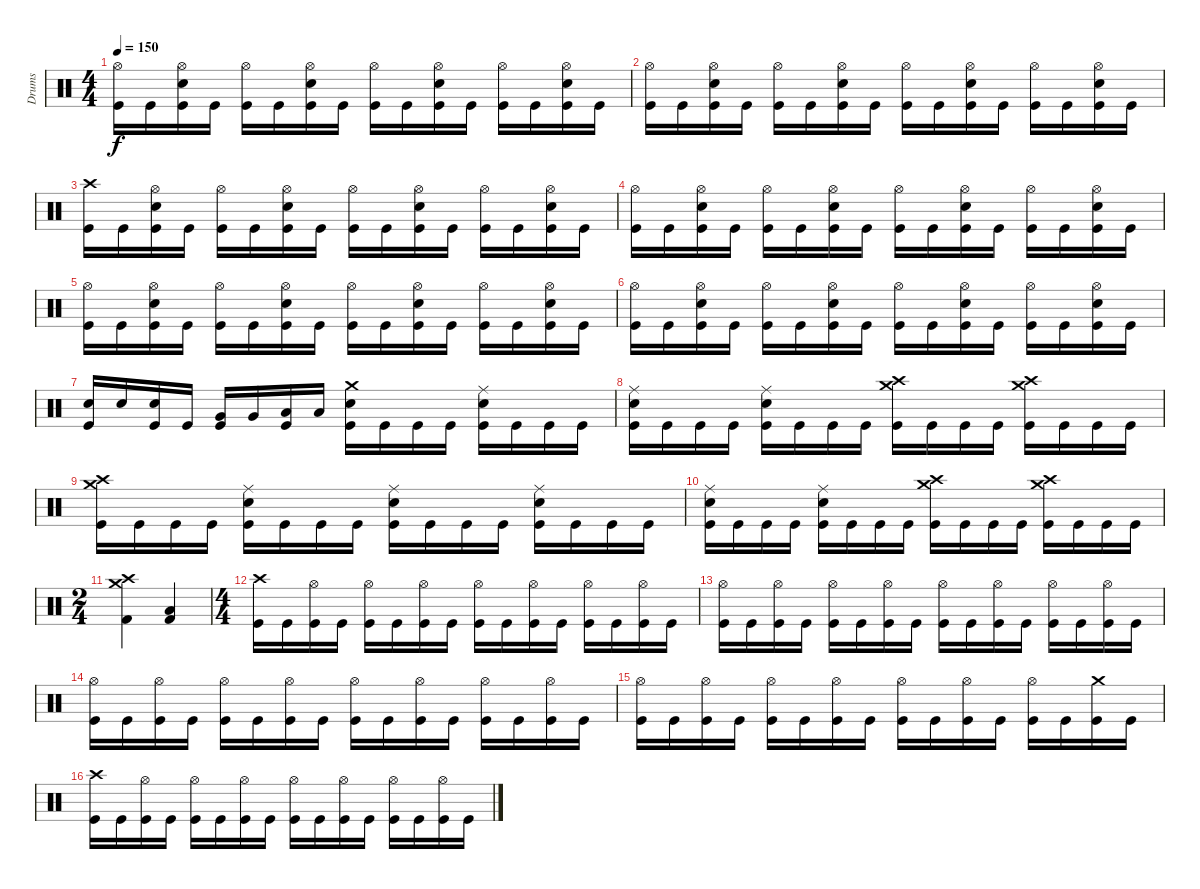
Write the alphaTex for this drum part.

\track ("Drums" "Drums") {instrument percussion}
\staff {score}
\articulation defaults
\ts (4 4)
\tempo 150
\clef neutral
\ks c
("Hi-Hat (open)" "Kick (hit)").16{dy f} "Kick (hit)".16 ("Hi-Hat (open)" "Snare (hit) 2" "Kick (hit)").16 "Kick (hit)".16 ("Hi-Hat (open)" "Kick (hit)").16 "Kick (hit)".16 ("Hi-Hat (open)" "Snare (hit) 2" "Kick (hit)").16 "Kick (hit)".16 ("Hi-Hat (open)" "Kick (hit)").16 "Kick (hit)".16 ("Hi-Hat (open)" "Snare (hit) 2" "Kick (hit)").16 "Kick (hit)".16 ("Hi-Hat (open)" "Kick (hit)").16 "Kick (hit)".16 ("Hi-Hat (open)" "Snare (hit) 2" "Kick (hit)").16 "Kick (hit)".16 |
("Hi-Hat (open)" "Kick (hit)").16 "Kick (hit)".16 ("Hi-Hat (open)" "Snare (hit) 2" "Kick (hit)").16 "Kick (hit)".16 ("Hi-Hat (open)" "Kick (hit)").16 "Kick (hit)".16 ("Hi-Hat (open)" "Snare (hit) 2" "Kick (hit)").16 "Kick (hit)".16 ("Hi-Hat (open)" "Kick (hit)").16 "Kick (hit)".16 ("Hi-Hat (open)" "Snare (hit) 2" "Kick (hit)").16 "Kick (hit)".16 ("Hi-Hat (open)" "Kick (hit)").16 "Kick (hit)".16 ("Hi-Hat (open)" "Snare (hit) 2" "Kick (hit)").16 "Kick (hit)".16 |
("Crash high (hit)" "Kick (hit)").16 "Kick (hit)".16 ("Hi-Hat (open)" "Snare (hit) 2" "Kick (hit)").16 "Kick (hit)".16 ("Hi-Hat (open)" "Kick (hit)").16 "Kick (hit)".16 ("Hi-Hat (open)" "Snare (hit) 2" "Kick (hit)").16 "Kick (hit)".16 ("Hi-Hat (open)" "Kick (hit)").16 "Kick (hit)".16 ("Hi-Hat (open)" "Snare (hit) 2" "Kick (hit)").16 "Kick (hit)".16 ("Hi-Hat (open)" "Kick (hit)").16 "Kick (hit)".16 ("Hi-Hat (open)" "Snare (hit) 2" "Kick (hit)").16 "Kick (hit)".16 |
("Hi-Hat (open)" "Kick (hit)").16 "Kick (hit)".16 ("Hi-Hat (open)" "Snare (hit) 2" "Kick (hit)").16 "Kick (hit)".16 ("Hi-Hat (open)" "Kick (hit)").16 "Kick (hit)".16 ("Hi-Hat (open)" "Snare (hit) 2" "Kick (hit)").16 "Kick (hit)".16 ("Hi-Hat (open)" "Kick (hit)").16 "Kick (hit)".16 ("Hi-Hat (open)" "Snare (hit) 2" "Kick (hit)").16 "Kick (hit)".16 ("Hi-Hat (open)" "Kick (hit)").16 "Kick (hit)".16 ("Hi-Hat (open)" "Snare (hit) 2" "Kick (hit)").16 "Kick (hit)".16 |
("Hi-Hat (open)" "Kick (hit)").16 "Kick (hit)".16 ("Hi-Hat (open)" "Snare (hit) 2" "Kick (hit)").16 "Kick (hit)".16 ("Hi-Hat (open)" "Kick (hit)").16 "Kick (hit)".16 ("Hi-Hat (open)" "Snare (hit) 2" "Kick (hit)").16 "Kick (hit)".16 ("Hi-Hat (open)" "Kick (hit)").16 "Kick (hit)".16 ("Hi-Hat (open)" "Snare (hit) 2" "Kick (hit)").16 "Kick (hit)".16 ("Hi-Hat (open)" "Kick (hit)").16 "Kick (hit)".16 ("Hi-Hat (open)" "Snare (hit) 2" "Kick (hit)").16 "Kick (hit)".16 |
("Hi-Hat (open)" "Kick (hit)").16 "Kick (hit)".16 ("Hi-Hat (open)" "Snare (hit) 2" "Kick (hit)").16 "Kick (hit)".16 ("Hi-Hat (open)" "Kick (hit)").16 "Kick (hit)".16 ("Hi-Hat (open)" "Snare (hit) 2" "Kick (hit)").16 "Kick (hit)".16 ("Hi-Hat (open)" "Kick (hit)").16 "Kick (hit)".16 ("Hi-Hat (open)" "Snare (hit) 2" "Kick (hit)").16 "Kick (hit)".16 ("Hi-Hat (open)" "Kick (hit)").16 "Kick (hit)".16 ("Hi-Hat (open)" "Snare (hit) 2" "Kick (hit)").16 "Kick (hit)".16 |
("Snare (hit) 2" "Kick (hit)").16 "Snare (hit) 2".16 ("Snare (hit) 2" "Kick (hit)").16 "Kick (hit)".16 ("Very Low Tom (hit)" "Kick (hit)").16 "Very Low Tom (hit)".16 ("Low Floor Tom (hit)" "Kick (hit)").16 "Low Floor Tom (hit)".16 ("Crash medium (hit)" "Snare (hit) 2" "Kick (hit)").16 "Kick (hit)".16 "Kick (hit)".16 "Kick (hit)".16 ("Ride (middle)" "Snare (hit) 2" "Kick (hit)").16 "Kick (hit)".16 "Kick (hit)".16 "Kick (hit)".16 |
("Ride (middle)" "Snare (hit) 2" "Kick (hit)").16 "Kick (hit)".16 "Kick (hit)".16 "Kick (hit)".16 ("Ride (middle)" "Snare (hit) 2" "Kick (hit)").16 "Kick (hit)".16 "Kick (hit)".16 "Kick (hit)".16 ("Crash medium (hit)" "Crash high (hit)" "Kick (hit)").16 "Kick (hit)".16 "Kick (hit)".16 "Kick (hit)".16 ("Crash medium (hit)" "Crash high (hit)" "Kick (hit)").16 "Kick (hit)".16 "Kick (hit)".16 "Kick (hit)".16 |
("Crash medium (hit)" "Crash high (hit)" "Kick (hit)").16 "Kick (hit)".16 "Kick (hit)".16 "Kick (hit)".16 ("Ride (middle)" "Snare (hit) 2" "Kick (hit)").16 "Kick (hit)".16 "Kick (hit)".16 "Kick (hit)".16 ("Ride (middle)" "Snare (hit) 2" "Kick (hit)").16 "Kick (hit)".16 "Kick (hit)".16 "Kick (hit)".16 ("Ride (middle)" "Snare (hit) 2" "Kick (hit)").16 "Kick (hit)".16 "Kick (hit)".16 "Kick (hit)".16 |
("Ride (middle)" "Snare (hit) 2" "Kick (hit)").16 "Kick (hit)".16 "Kick (hit)".16 "Kick (hit)".16 ("Ride (middle)" "Snare (hit) 2" "Kick (hit)").16 "Kick (hit)".16 "Kick (hit)".16 "Kick (hit)".16 ("Crash medium (hit)" "Crash high (hit)" "Kick (hit)").16 "Kick (hit)".16 "Kick (hit)".16 "Kick (hit)".16 ("Crash medium (hit)" "Crash high (hit)" "Kick (hit)").16 "Kick (hit)".16 "Kick (hit)".16 "Kick (hit)".16 |
\ts (2 4)
("Crash medium (hit)" "Crash high (hit)" "Kick (hit) 2").4 ("Low Floor Tom (hit)" "Kick (hit) 2").4 |
\ts (4 4)
("Crash high (hit)" "Kick (hit)").16 "Kick (hit)".16 ("Hi-Hat (open)" "Kick (hit)").16 "Kick (hit)".16 ("Hi-Hat (open)" "Kick (hit)").16 "Kick (hit)".16 ("Hi-Hat (open)" "Kick (hit)").16 "Kick (hit)".16 ("Hi-Hat (open)" "Kick (hit)").16 "Kick (hit)".16 ("Hi-Hat (open)" "Kick (hit)").16 "Kick (hit)".16 ("Hi-Hat (open)" "Kick (hit)").16 "Kick (hit)".16 ("Hi-Hat (open)" "Kick (hit)").16 "Kick (hit)".16 |
("Hi-Hat (open)" "Kick (hit)").16 "Kick (hit)".16 ("Hi-Hat (open)" "Kick (hit)").16 "Kick (hit)".16 ("Hi-Hat (open)" "Kick (hit)").16 "Kick (hit)".16 ("Hi-Hat (open)" "Kick (hit)").16 "Kick (hit)".16 ("Hi-Hat (open)" "Kick (hit)").16 "Kick (hit)".16 ("Hi-Hat (open)" "Kick (hit)").16 "Kick (hit)".16 ("Hi-Hat (open)" "Kick (hit)").16 "Kick (hit)".16 ("Hi-Hat (open)" "Kick (hit)").16 "Kick (hit)".16 |
("Hi-Hat (open)" "Kick (hit)").16 "Kick (hit)".16 ("Hi-Hat (open)" "Kick (hit)").16 "Kick (hit)".16 ("Hi-Hat (open)" "Kick (hit)").16 "Kick (hit)".16 ("Hi-Hat (open)" "Kick (hit)").16 "Kick (hit)".16 ("Hi-Hat (open)" "Kick (hit)").16 "Kick (hit)".16 ("Hi-Hat (open)" "Kick (hit)").16 "Kick (hit)".16 ("Hi-Hat (open)" "Kick (hit)").16 "Kick (hit)".16 ("Hi-Hat (open)" "Kick (hit)").16 "Kick (hit)".16 |
("Hi-Hat (open)" "Kick (hit)").16 "Kick (hit)".16 ("Hi-Hat (open)" "Kick (hit)").16 "Kick (hit)".16 ("Hi-Hat (open)" "Kick (hit)").16 "Kick (hit)".16 ("Hi-Hat (open)" "Kick (hit)").16 "Kick (hit)".16 ("Hi-Hat (open)" "Kick (hit)").16 "Kick (hit)".16 ("Hi-Hat (open)" "Kick (hit)").16 "Kick (hit)".16 ("Hi-Hat (open)" "Kick (hit)").16 "Kick (hit)".16 ("Crash medium (hit)" "Kick (hit)").16 "Kick (hit)".16 |
("Crash high (hit)" "Kick (hit)").16 "Kick (hit)".16 ("Hi-Hat (open)" "Kick (hit)").16 "Kick (hit)".16 ("Hi-Hat (open)" "Kick (hit)").16 "Kick (hit)".16 ("Hi-Hat (open)" "Kick (hit)").16 "Kick (hit)".16 ("Hi-Hat (open)" "Kick (hit)").16 "Kick (hit)".16 ("Hi-Hat (open)" "Kick (hit)").16 "Kick (hit)".16 ("Hi-Hat (open)" "Kick (hit)").16 "Kick (hit)".16 ("Hi-Hat (open)" "Kick (hit)").16 "Kick (hit)".16
